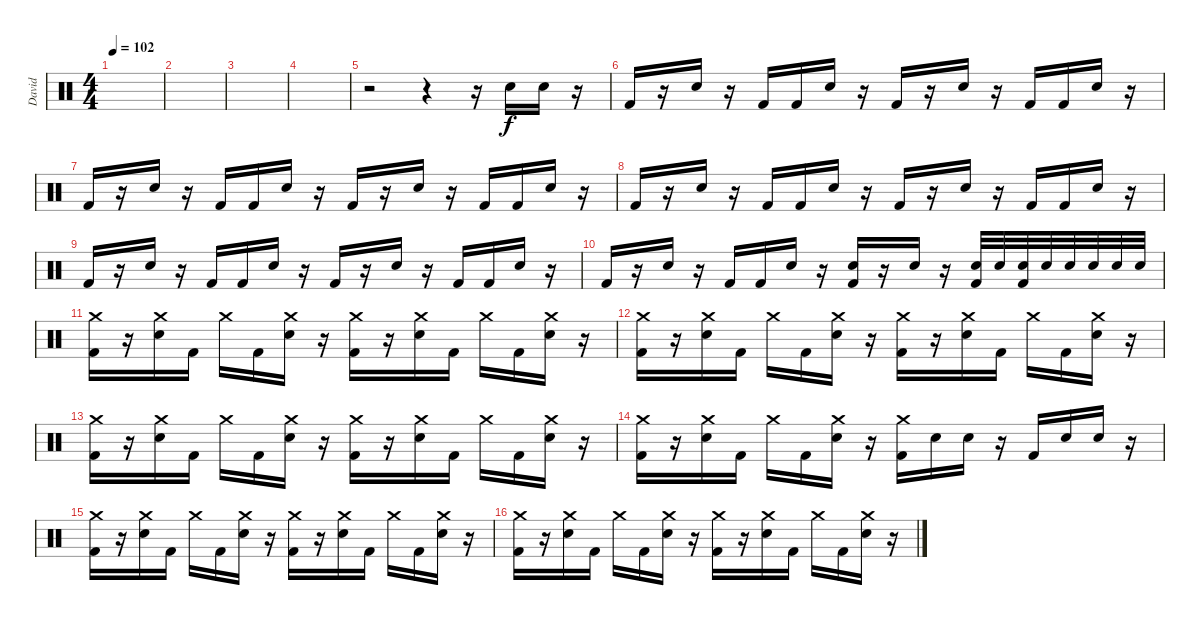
\track ("David" "David") {instrument percussion}
\staff {score}
\articulation defaults
\ts (4 4)
\tempo 102
\clef neutral
\ks c
|
|
|
|
r.2 r.4 r.16 "Electric Snare (hit)".16 "Electric Snare (hit)".16 r.16 |
"Kick (hit) 2".16 r.16 "Electric Snare (hit)".16 r.16 "Kick (hit) 2".16 "Kick (hit) 2".16 "Electric Snare (hit)".16 r.16 "Kick (hit) 2".16 r.16 "Electric Snare (hit)".16 r.16 "Kick (hit) 2".16 "Kick (hit) 2".16 "Electric Snare (hit)".16 r.16 |
"Kick (hit) 2".16 r.16 "Electric Snare (hit)".16 r.16 "Kick (hit) 2".16 "Kick (hit) 2".16 "Electric Snare (hit)".16 r.16 "Kick (hit) 2".16 r.16 "Electric Snare (hit)".16 r.16 "Kick (hit) 2".16 "Kick (hit) 2".16 "Electric Snare (hit)".16 r.16 |
"Kick (hit) 2".16 r.16 "Electric Snare (hit)".16 r.16 "Kick (hit) 2".16 "Kick (hit) 2".16 "Electric Snare (hit)".16 r.16 "Kick (hit) 2".16 r.16 "Electric Snare (hit)".16 r.16 "Kick (hit) 2".16 "Kick (hit) 2".16 "Electric Snare (hit)".16 r.16 |
"Kick (hit) 2".16 r.16 "Electric Snare (hit)".16 r.16 "Kick (hit) 2".16 "Kick (hit) 2".16 "Electric Snare (hit)".16 r.16 "Kick (hit) 2".16 r.16 "Electric Snare (hit)".16 r.16 "Kick (hit) 2".16 "Kick (hit) 2".16 "Electric Snare (hit)".16 r.16 |
"Kick (hit) 2".16 r.16 "Electric Snare (hit)".16 r.16 "Kick (hit) 2".16 "Kick (hit) 2".16 "Electric Snare (hit)".16 r.16 ("Electric Snare (hit)" "Kick (hit) 2").16 r.16 "Electric Snare (hit)".16 r.16 ("Electric Snare (hit)" "Kick (hit) 2").32 "Electric Snare (hit)".32 ("Electric Snare (hit)" "Kick (hit) 2").32 "Electric Snare (hit)".32 "Electric Snare (hit)".32 "Electric Snare (hit)".32 "Electric Snare (hit)".32 "Electric Snare (hit)".32 |
("Crash medium (hit)" "Kick (hit) 2").16 r.16 ("Crash medium (hit)" "Electric Snare (hit)").16 "Kick (hit) 2".16 "Crash medium (hit)".16 "Kick (hit) 2".16 ("Crash medium (hit)" "Electric Snare (hit)").16 r.16 ("Crash medium (hit)" "Kick (hit) 2").16 r.16 ("Crash medium (hit)" "Electric Snare (hit)").16 "Kick (hit) 2".16 "Crash medium (hit)".16 "Kick (hit) 2".16 ("Crash medium (hit)" "Electric Snare (hit)").16 r.16 |
("Crash medium (hit)" "Kick (hit) 2").16 r.16 ("Crash medium (hit)" "Electric Snare (hit)").16 "Kick (hit) 2".16 "Crash medium (hit)".16 "Kick (hit) 2".16 ("Crash medium (hit)" "Electric Snare (hit)").16 r.16 ("Crash medium (hit)" "Kick (hit) 2").16 r.16 ("Crash medium (hit)" "Electric Snare (hit)").16 "Kick (hit) 2".16 "Crash medium (hit)".16 "Kick (hit) 2".16 ("Crash medium (hit)" "Electric Snare (hit)").16 r.16 |
("Crash medium (hit)" "Kick (hit) 2").16 r.16 ("Crash medium (hit)" "Electric Snare (hit)").16 "Kick (hit) 2".16 "Crash medium (hit)".16 "Kick (hit) 2".16 ("Crash medium (hit)" "Electric Snare (hit)").16 r.16 ("Crash medium (hit)" "Kick (hit) 2").16 r.16 ("Crash medium (hit)" "Electric Snare (hit)").16 "Kick (hit) 2".16 "Crash medium (hit)".16 "Kick (hit) 2".16 ("Crash medium (hit)" "Electric Snare (hit)").16 r.16 |
("Crash medium (hit)" "Kick (hit) 2").16 r.16 ("Crash medium (hit)" "Electric Snare (hit)").16 "Kick (hit) 2".16 "Crash medium (hit)".16 "Kick (hit) 2".16 ("Crash medium (hit)" "Electric Snare (hit)").16 r.16 ("Crash medium (hit)" "Kick (hit) 2").16 "Electric Snare (hit)".16 "Electric Snare (hit)".16 r.16 "Kick (hit) 2".16 "Electric Snare (hit)".16 "Electric Snare (hit)".16 r.16 |
("Crash medium (hit)" "Kick (hit) 2").16 r.16 ("Crash medium (hit)" "Electric Snare (hit)").16 "Kick (hit) 2".16 "Crash medium (hit)".16 "Kick (hit) 2".16 ("Crash medium (hit)" "Electric Snare (hit)").16 r.16 ("Crash medium (hit)" "Kick (hit) 2").16 r.16 ("Crash medium (hit)" "Electric Snare (hit)").16 "Kick (hit) 2".16 "Crash medium (hit)".16 "Kick (hit) 2".16 ("Crash medium (hit)" "Electric Snare (hit)").16 r.16 |
("Crash medium (hit)" "Kick (hit) 2").16 r.16 ("Crash medium (hit)" "Electric Snare (hit)").16 "Kick (hit) 2".16 "Crash medium (hit)".16 "Kick (hit) 2".16 ("Crash medium (hit)" "Electric Snare (hit)").16 r.16 ("Crash medium (hit)" "Kick (hit) 2").16 r.16 ("Crash medium (hit)" "Electric Snare (hit)").16 "Kick (hit) 2".16 "Crash medium (hit)".16 "Kick (hit) 2".16 ("Crash medium (hit)" "Electric Snare (hit)").16 r.16
